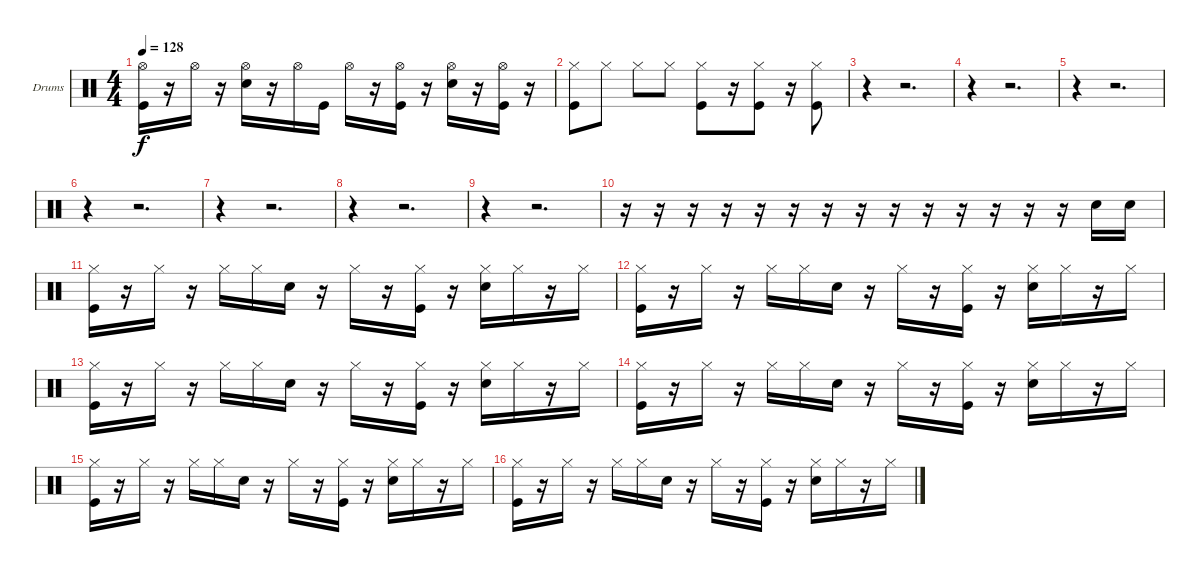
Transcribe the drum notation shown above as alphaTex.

\bracketExtendMode groupsimilarinstruments
\firstSystemTrackNameOrientation horizontal
\otherSystemsTrackNameOrientation horizontal
\track ("Drumkit" "Drums") {instrument percussion}
\staff {score}
\articulation defaults
\ts (4 4)
\tempo 128
\clef neutral
\ks c
("Kick (hit)" "Hi-Hat (open)").16{dy f} r.16 "Hi-Hat (open)".16 r.16 ("Snare (hit) 2" "Hi-Hat (open)").16 r.16 "Hi-Hat (open)".16 "Kick (hit)".16 "Hi-Hat (open)".16 r.16 ("Kick (hit)" "Hi-Hat (open)").16 r.16 ("Snare (hit) 2" "Hi-Hat (open)").16 r.16 ("Kick (hit)" "Hi-Hat (open)").16 r.16 |
("Kick (hit)" "Hi-Hat (closed)").8 "Hi-Hat (closed)".8 "Hi-Hat (closed)".8 "Hi-Hat (closed)".8 ("Kick (hit)" "Hi-Hat (closed)").8 r.16 ("Kick (hit)" "Hi-Hat (closed)").8 r.16 ("Kick (hit)" "Hi-Hat (closed)").8 |
r.4 r.2{d} |
r.4 r.2{d} |
r.4 r.2{d} |
r.4 r.2{d} |
r.4 r.2{d} |
r.4 r.2{d} |
r.4 r.2{d} |
r.16 r.16 r.16 r.16 r.16 r.16 r.16 r.16 r.16 r.16 r.16 r.16 r.16 r.16 "Snare (hit) 2".16 "Snare (hit) 2".16 |
("Kick (hit)" "Hi-Hat (closed)").16 r.16 "Hi-Hat (closed)".16 r.16 "Hi-Hat (closed)".16 "Hi-Hat (closed)".16 "Snare (hit) 2".16 r.16 "Hi-Hat (closed)".16 r.16 ("Kick (hit)" "Hi-Hat (closed)").16 r.16 ("Snare (hit) 2" "Hi-Hat (closed)").16 "Hi-Hat (closed)".16 r.16 "Hi-Hat (closed)".16 |
("Kick (hit)" "Hi-Hat (closed)").16 r.16 "Hi-Hat (closed)".16 r.16 "Hi-Hat (closed)".16 "Hi-Hat (closed)".16 "Snare (hit) 2".16 r.16 "Hi-Hat (closed)".16 r.16 ("Kick (hit)" "Hi-Hat (closed)").16 r.16 ("Snare (hit) 2" "Hi-Hat (closed)").16 "Hi-Hat (closed)".16 r.16 "Hi-Hat (closed)".16 |
("Kick (hit)" "Hi-Hat (closed)").16 r.16 "Hi-Hat (closed)".16 r.16 "Hi-Hat (closed)".16 "Hi-Hat (closed)".16 "Snare (hit) 2".16 r.16 "Hi-Hat (closed)".16 r.16 ("Kick (hit)" "Hi-Hat (closed)").16 r.16 ("Snare (hit) 2" "Hi-Hat (closed)").16 "Hi-Hat (closed)".16 r.16 "Hi-Hat (closed)".16 |
("Kick (hit)" "Hi-Hat (closed)").16 r.16 "Hi-Hat (closed)".16 r.16 "Hi-Hat (closed)".16 "Hi-Hat (closed)".16 "Snare (hit) 2".16 r.16 "Hi-Hat (closed)".16 r.16 ("Kick (hit)" "Hi-Hat (closed)").16 r.16 ("Snare (hit) 2" "Hi-Hat (closed)").16 "Hi-Hat (closed)".16 r.16 "Hi-Hat (closed)".16 |
("Kick (hit)" "Hi-Hat (closed)").16 r.16 "Hi-Hat (closed)".16 r.16 "Hi-Hat (closed)".16 "Hi-Hat (closed)".16 "Snare (hit) 2".16 r.16 "Hi-Hat (closed)".16 r.16 ("Kick (hit)" "Hi-Hat (closed)").16 r.16 ("Snare (hit) 2" "Hi-Hat (closed)").16 "Hi-Hat (closed)".16 r.16 "Hi-Hat (closed)".16 |
("Kick (hit)" "Hi-Hat (closed)").16 r.16 "Hi-Hat (closed)".16 r.16 "Hi-Hat (closed)".16 "Hi-Hat (closed)".16 "Snare (hit) 2".16 r.16 "Hi-Hat (closed)".16 r.16 ("Kick (hit)" "Hi-Hat (closed)").16 r.16 ("Snare (hit) 2" "Hi-Hat (closed)").16 "Hi-Hat (closed)".16 r.16 "Hi-Hat (closed)".16
